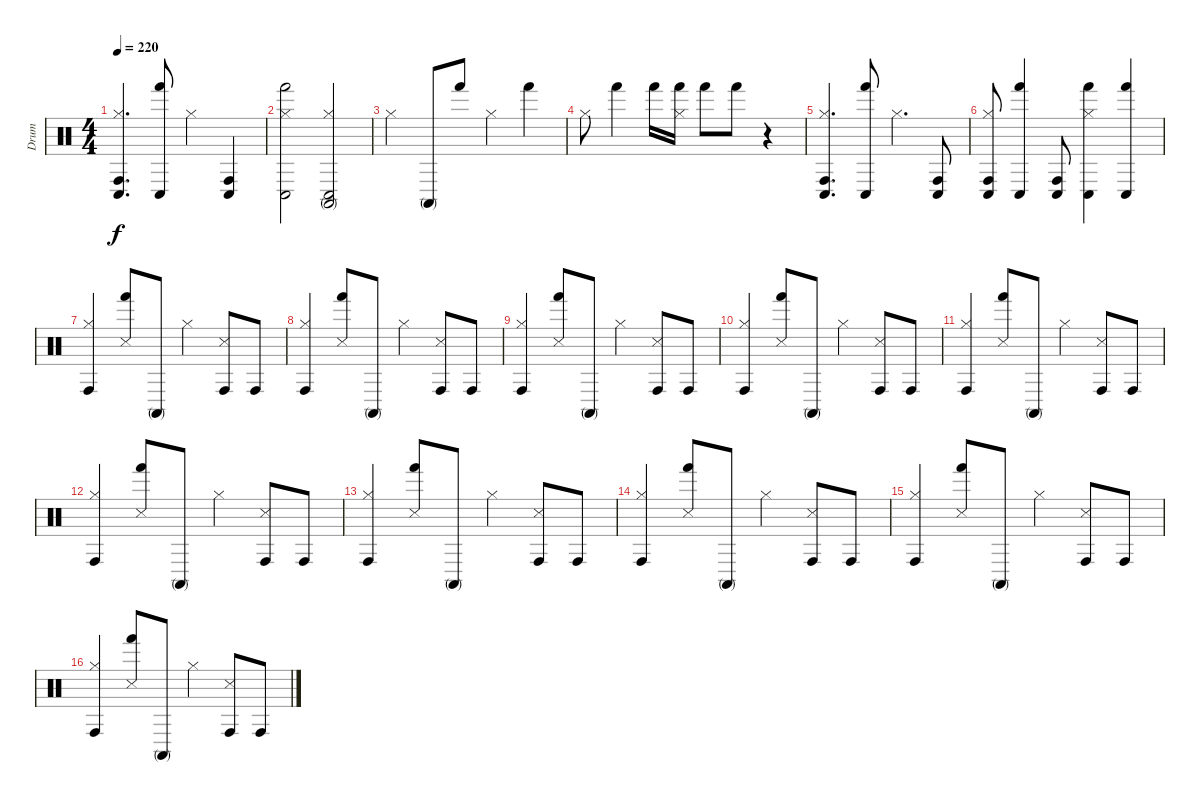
\track ("Drum" "Drum") {instrument percussion}
\staff {score}
\articulation defaults
\ts (4 4)
\tempo 220
\clef neutral
\ks c
("Hi-Hat (closed)" "Conga low (hit)" "Conga high (hit)").4{d dy f} ("Conga low (hit)" "Hand (hit)").8 "Hi-Hat (closed)".4 ("Conga low (hit)" "Conga high (hit)").4 |
("Hi-Hat (closed)" "Conga low (hit)" "Hand (hit)").2 ("Hi-Hat (closed)" "Conga low (hit)" "Conga high (mute)").2 |
"Hi-Hat (closed)".4 "Conga high (mute)".8 "Hand (hit)".8 "Hi-Hat (closed)".4 "Hand (hit)".4 |
"Hi-Hat (closed)".8 "Hand (hit)".4 "Hand (hit)".16 ("Hi-Hat (closed)" "Hand (hit)").16 "Hand (hit)".8 "Hand (hit)".8 r.4 |
("Hi-Hat (closed)" "Conga low (hit)" "Conga high (hit)").4{d} ("Conga low (hit)" "Hand (hit)").8 "Hi-Hat (closed)".4{d} ("Conga low (hit)" "Conga high (hit)").8 |
("Hi-Hat (closed)" "Conga low (hit)" "Conga high (hit)").8 ("Conga low (hit)" "Hand (hit)").4 ("Conga low (hit)" "Conga high (hit)").8 ("Hi-Hat (closed)" "Conga low (hit)" "Hand (hit)").4 ("Conga low (hit)" "Hand (hit)").4 |
("Hi-Hat (closed)" "Conga high (hit)").4 ("Metronome (hit)" "Hand (hit)").8 "Conga high (mute)".8 "Hi-Hat (closed)".4 ("Metronome (hit)" "Conga high (hit)").8 "Conga high (hit)".8 |
("Hi-Hat (closed)" "Conga high (hit)").4 ("Metronome (hit)" "Hand (hit)").8 "Conga high (mute)".8 "Hi-Hat (closed)".4 ("Metronome (hit)" "Conga high (hit)").8 "Conga high (hit)".8 |
("Hi-Hat (closed)" "Conga high (hit)").4 ("Metronome (hit)" "Hand (hit)").8 "Conga high (mute)".8 "Hi-Hat (closed)".4 ("Metronome (hit)" "Conga high (hit)").8 "Conga high (hit)".8 |
("Hi-Hat (closed)" "Conga high (hit)").4 ("Metronome (hit)" "Hand (hit)").8 "Conga high (mute)".8 "Hi-Hat (closed)".4 ("Metronome (hit)" "Conga high (hit)").8 "Conga high (hit)".8 |
("Hi-Hat (closed)" "Conga high (hit)").4 ("Metronome (hit)" "Hand (hit)").8 "Conga high (mute)".8 "Hi-Hat (closed)".4 ("Metronome (hit)" "Conga high (hit)").8 "Conga high (hit)".8 |
("Hi-Hat (closed)" "Conga high (hit)").4 ("Metronome (hit)" "Hand (hit)").8 "Conga high (mute)".8 "Hi-Hat (closed)".4 ("Metronome (hit)" "Conga high (hit)").8 "Conga high (hit)".8 |
("Hi-Hat (closed)" "Conga high (hit)").4 ("Metronome (hit)" "Hand (hit)").8 "Conga high (mute)".8 "Hi-Hat (closed)".4 ("Metronome (hit)" "Conga high (hit)").8 "Conga high (hit)".8 |
("Hi-Hat (closed)" "Conga high (hit)").4 ("Metronome (hit)" "Hand (hit)").8 "Conga high (mute)".8 "Hi-Hat (closed)".4 ("Metronome (hit)" "Conga high (hit)").8 "Conga high (hit)".8 |
("Hi-Hat (closed)" "Conga high (hit)").4 ("Metronome (hit)" "Hand (hit)").8 "Conga high (mute)".8 "Hi-Hat (closed)".4 ("Metronome (hit)" "Conga high (hit)").8 "Conga high (hit)".8 |
("Hi-Hat (closed)" "Conga high (hit)").4 ("Metronome (hit)" "Hand (hit)").8 "Conga high (mute)".8 "Hi-Hat (closed)".4 ("Metronome (hit)" "Conga high (hit)").8 "Conga high (hit)".8
